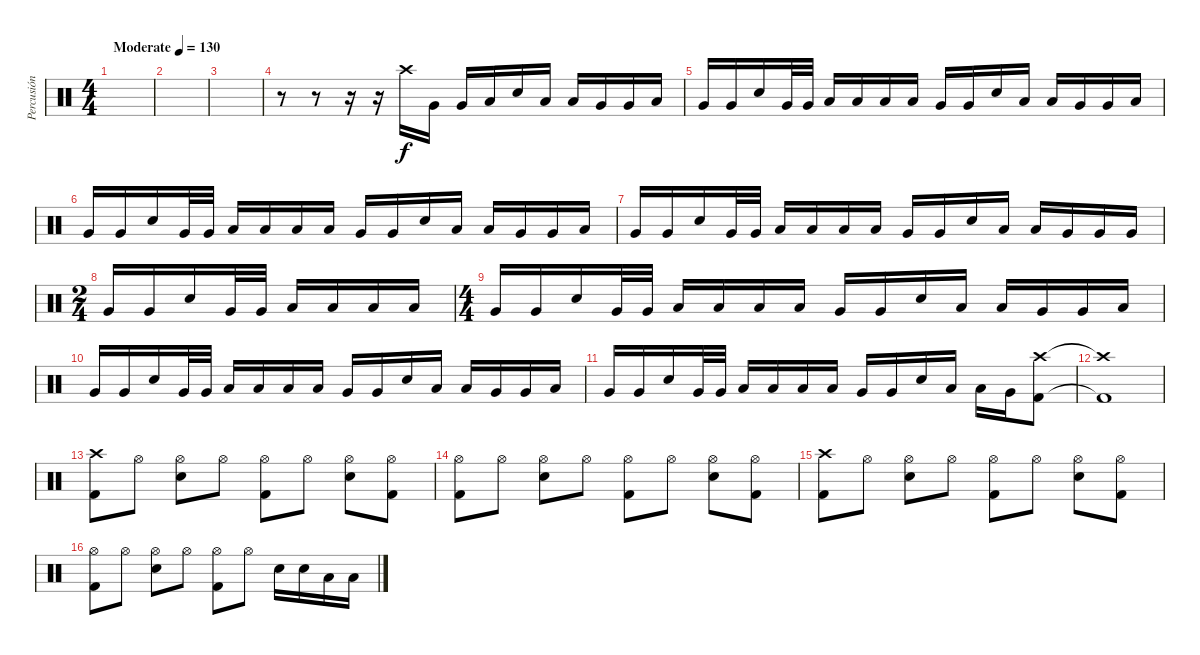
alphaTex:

\track ("Percusión" "Percusión") {instrument percussion}
\staff {score}
\articulation defaults
\ts (4 4)
\tempo (130 "Moderate")
\clef neutral
\ks c
|
|
|
r.8 r.8 r.16 r.16 "Crash high (hit)".16 "Very Low Tom (hit)".16 "Very Low Tom (hit)".16 "Low Floor Tom (hit)".16 "Electric Snare (hit)".16 "Low Tom (hit)".16 "Low Tom (hit)".16 "Very Low Tom (hit)".16 "Very Low Tom (hit)".16 "Low Tom (hit)".16 |
"Very Low Tom (hit)".16 "Very Low Tom (hit)".16 "Electric Snare (hit)".16 "Very Low Tom (hit)".32 "Very Low Tom (hit)".32 "Low Floor Tom (hit)".16 "Low Floor Tom (hit)".16 "Low Tom (hit)".16 "Low Tom (hit)".16 "Very Low Tom (hit)".16 "Very Low Tom (hit)".16 "Electric Snare (hit)".16 "Low Tom (hit)".16 "Low Tom (hit)".16 "Very Low Tom (hit)".16 "Very Low Tom (hit)".16 "Low Tom (hit)".16 |
"Very Low Tom (hit)".16 "Very Low Tom (hit)".16 "Electric Snare (hit)".16 "Very Low Tom (hit)".32 "Very Low Tom (hit)".32 "Low Floor Tom (hit)".16 "Low Floor Tom (hit)".16 "Low Tom (hit)".16 "Low Tom (hit)".16 "Very Low Tom (hit)".16 "Very Low Tom (hit)".16 "Electric Snare (hit)".16 "Low Tom (hit)".16 "Low Tom (hit)".16 "Very Low Tom (hit)".16 "Very Low Tom (hit)".16 "Low Tom (hit)".16 |
"Very Low Tom (hit)".16 "Very Low Tom (hit)".16 "Electric Snare (hit)".16 "Very Low Tom (hit)".32 "Very Low Tom (hit)".32 "Low Floor Tom (hit)".16 "Low Floor Tom (hit)".16 "Low Tom (hit)".16 "Low Tom (hit)".16 "Very Low Tom (hit)".16 "Very Low Tom (hit)".16 "Electric Snare (hit)".16 "Low Tom (hit)".16 "Low Tom (hit)".16 "Very Low Tom (hit)".16 "Very Low Tom (hit)".16 "Very Low Tom (hit)".16 |
\ts (2 4)
"Very Low Tom (hit)".16 "Very Low Tom (hit)".16 "Electric Snare (hit)".16 "Very Low Tom (hit)".32 "Very Low Tom (hit)".32 "Low Floor Tom (hit)".16 "Low Floor Tom (hit)".16 "Low Tom (hit)".16 "Low Tom (hit)".16 |
\ts (4 4)
"Very Low Tom (hit)".16 "Very Low Tom (hit)".16 "Electric Snare (hit)".16 "Very Low Tom (hit)".32 "Very Low Tom (hit)".32 "Low Floor Tom (hit)".16 "Low Floor Tom (hit)".16 "Low Tom (hit)".16 "Low Tom (hit)".16 "Very Low Tom (hit)".16 "Very Low Tom (hit)".16 "Electric Snare (hit)".16 "Low Tom (hit)".16 "Low Tom (hit)".16 "Very Low Tom (hit)".16 "Very Low Tom (hit)".16 "Low Tom (hit)".16 |
"Very Low Tom (hit)".16 "Very Low Tom (hit)".16 "Electric Snare (hit)".16 "Very Low Tom (hit)".32 "Very Low Tom (hit)".32 "Low Floor Tom (hit)".16 "Low Floor Tom (hit)".16 "Low Tom (hit)".16 "Low Tom (hit)".16 "Very Low Tom (hit)".16 "Very Low Tom (hit)".16 "Electric Snare (hit)".16 "Low Tom (hit)".16 "Low Tom (hit)".16 "Very Low Tom (hit)".16 "Very Low Tom (hit)".16 "Low Tom (hit)".16 |
"Very Low Tom (hit)".16 "Very Low Tom (hit)".16 "Electric Snare (hit)".16 "Very Low Tom (hit)".32 "Very Low Tom (hit)".32 "Low Floor Tom (hit)".16 "Low Floor Tom (hit)".16 "Low Tom (hit)".16 "Low Tom (hit)".16 "Very Low Tom (hit)".16 "Very Low Tom (hit)".16 "Electric Snare (hit)".16 "Low Tom (hit)".16 "Low Tom (hit)".16 "Very Low Tom (hit)".16 ("Crash high (hit)" "Kick (hit) 2").8 |
("Crash high (hit)"{t} "Kick (hit) 2"{t}).1 |
("Crash high (hit)" "Kick (hit) 2").8 "Hi-Hat (open)".8 ("Hi-Hat (open)" "Electric Snare (hit)").8 "Hi-Hat (open)".8 ("Hi-Hat (open)" "Kick (hit) 2").8 "Hi-Hat (open)".8 ("Hi-Hat (open)" "Electric Snare (hit)").8 ("Hi-Hat (open)" "Kick (hit) 2").8 |
("Hi-Hat (open)" "Kick (hit) 2").8 "Hi-Hat (open)".8 ("Hi-Hat (open)" "Electric Snare (hit)").8 "Hi-Hat (open)".8 ("Hi-Hat (open)" "Kick (hit) 2").8 "Hi-Hat (open)".8 ("Hi-Hat (open)" "Electric Snare (hit)").8 ("Hi-Hat (open)" "Kick (hit) 2").8 |
("Crash high (hit)" "Kick (hit) 2").8 "Hi-Hat (open)".8 ("Hi-Hat (open)" "Electric Snare (hit)").8 "Hi-Hat (open)".8 ("Hi-Hat (open)" "Kick (hit) 2").8 "Hi-Hat (open)".8 ("Hi-Hat (open)" "Electric Snare (hit)").8 ("Hi-Hat (open)" "Kick (hit) 2").8 |
("Hi-Hat (open)" "Kick (hit) 2").8 "Hi-Hat (open)".8 ("Hi-Hat (open)" "Electric Snare (hit)").8 "Hi-Hat (open)".8 ("Hi-Hat (open)" "Kick (hit) 2").8 "Hi-Hat (open)".8 "Electric Snare (hit)".16 "Electric Snare (hit)".16 "Low Tom (hit)".16 "Low Tom (hit)".16
